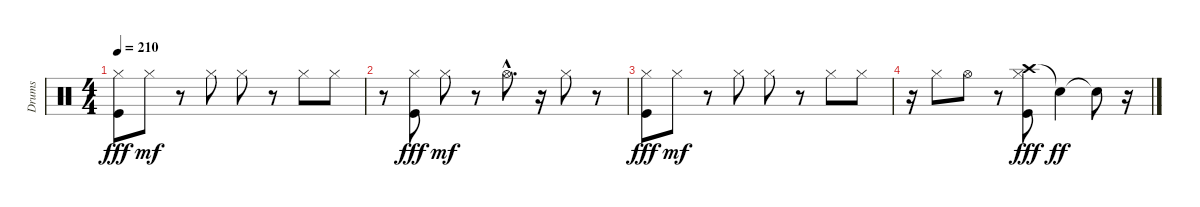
\track ("Drums" "Drums") {instrument percussion}
\staff {score}
\articulation defaults
\ts (4 4)
\tempo 210
\clef neutral
\ks c
("Hi-Hat (closed)" "Kick (hit)").8{dy fff} "Hi-Hat (closed)".8{dy mf} r.8 "Hi-Hat (closed)".8 "Hi-Hat (closed)".8 r.8 "Hi-Hat (closed)".8 "Hi-Hat (closed)".8 |
r.8 ("Hi-Hat (closed)" "Kick (hit)").8{dy fff} "Hi-Hat (closed)".8{dy mf} r.8 "Hi-Hat (open)"{hac}.8{d} r.16 "Hi-Hat (closed)".8 r.8 |
("Hi-Hat (closed)" "Kick (hit)").8{dy fff} "Hi-Hat (closed)".8{dy mf} r.8 "Hi-Hat (closed)".8 "Hi-Hat (closed)".8 r.8 "Hi-Hat (closed)".8 "Hi-Hat (closed)".8 |
r.16 "Hi-Hat (closed)".8 "Hi-Hat (open)".8 r.8 ("Crash high (hit)" "Hi-Hat (closed)" "Kick (hit)").8{dy fff} "Snare (hit)"{t}.4{dy ff} "Snare (hit)"{t}.8 r.16
